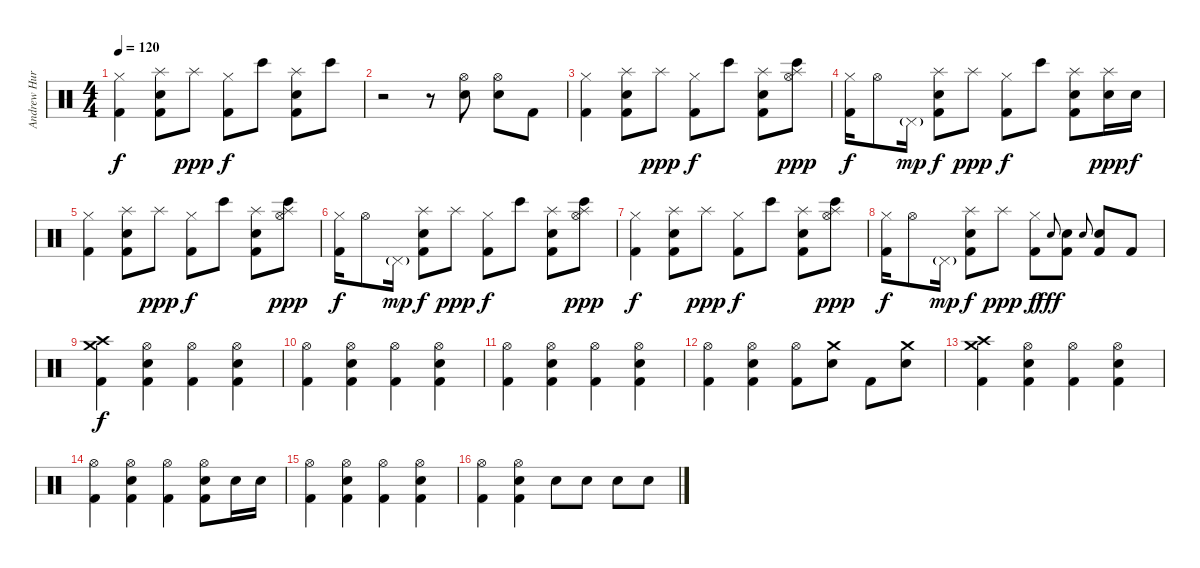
\track ("Andrew Hurley (Drums)" "Andrew Hur") {instrument percussion}
\staff {score}
\articulation defaults
\ts (4 4)
\tempo 120
\clef neutral
\ks c
("Hi-Hat (closed)" "Kick (hit) 2").4{dy f} ("Splash (hit)" "Snare (hit) 2" "Kick (hit) 2").8 "Splash (hit)".8{dy ppp} ("Hi-Hat (closed)" "Kick (hit) 2").8{dy f} "Bongo High (hit)".8 ("Splash (hit)" "Snare (hit) 2" "Kick (hit) 2").8 "Bongo High (hit)".8 |
r.2 r.8 ("Hi-Hat (open)" "Snare (hit) 2").8 ("Hi-Hat (open)" "Snare (hit) 2").8 "Kick (hit) 2".8 |
("Hi-Hat (closed)" "Kick (hit) 2").4 ("Splash (hit)" "Snare (hit) 2" "Kick (hit) 2").8 "Splash (hit)".8{dy ppp} ("Hi-Hat (closed)" "Kick (hit) 2").8{dy f} "Bongo High (hit)".8 ("Splash (hit)" "Snare (hit) 2" "Kick (hit) 2").8 ("Hi-Hat (open)" "Splash (hit)" "Bongo High (hit)").8{dy ppp} |
("Hi-Hat (closed)" "Kick (hit) 2").16{dy f} "Hi-Hat (open)".8 "Pedal Hi-Hat (hit)"{g}.16{dy mp} ("Splash (hit)" "Snare (hit) 2" "Kick (hit) 2").8{dy f} "Splash (hit)".8{dy ppp} ("Hi-Hat (closed)" "Kick (hit) 2").8{dy f} "Bongo High (hit)".8 ("Splash (hit)" "Snare (hit) 2" "Kick (hit) 2").8 ("Splash (hit)" "Snare (hit) 2").16{dy ppp} "Snare (hit) 2".16{dy f} |
("Hi-Hat (closed)" "Kick (hit) 2").4 ("Splash (hit)" "Snare (hit) 2" "Kick (hit) 2").8 "Splash (hit)".8{dy ppp} ("Hi-Hat (closed)" "Kick (hit) 2").8{dy f} "Bongo High (hit)".8 ("Splash (hit)" "Snare (hit) 2" "Kick (hit) 2").8 ("Hi-Hat (open)" "Splash (hit)" "Bongo High (hit)").8{dy ppp} |
("Hi-Hat (closed)" "Kick (hit) 2").16{dy f} "Hi-Hat (open)".8 "Pedal Hi-Hat (hit)"{g}.16{dy mp} ("Splash (hit)" "Snare (hit) 2" "Kick (hit) 2").8{dy f} "Splash (hit)".8{dy ppp} ("Hi-Hat (closed)" "Kick (hit) 2").8{dy f} "Bongo High (hit)".8 ("Splash (hit)" "Snare (hit) 2" "Kick (hit) 2").8 ("Hi-Hat (open)" "Splash (hit)" "Bongo High (hit)").8{dy ppp} |
("Hi-Hat (closed)" "Kick (hit) 2").4{dy f} ("Splash (hit)" "Snare (hit) 2" "Kick (hit) 2").8 "Splash (hit)".8{dy ppp} ("Hi-Hat (closed)" "Kick (hit) 2").8{dy f} "Bongo High (hit)".8 ("Splash (hit)" "Snare (hit) 2" "Kick (hit) 2").8 ("Hi-Hat (open)" "Splash (hit)" "Bongo High (hit)").8{dy ppp} |
("Hi-Hat (closed)" "Kick (hit) 2").16{dy f} "Hi-Hat (open)".8 "Pedal Hi-Hat (hit)"{g}.16{dy mp} ("Splash (hit)" "Snare (hit) 2" "Kick (hit) 2").8{dy f} "Splash (hit)".8{dy ppp} ("Hi-Hat (closed)" "Kick (hit) 2").8{dy f} "Snare (hit) 2".8{gr onbeat dy fff} ("Snare (hit) 2" "Kick (hit) 2").8 "Snare (hit) 2".8{gr onbeat} ("Snare (hit) 2" "Kick (hit) 2").8 "Kick (hit) 2".8 |
("Crash high (hit)" "Crash medium (hit)" "Kick (hit) 2").4{dy f} ("Hi-Hat (open)" "Snare (hit) 2" "Kick (hit) 2").4 ("Hi-Hat (open)" "Kick (hit) 2").4 ("Hi-Hat (open)" "Snare (hit) 2" "Kick (hit) 2").4 |
("Hi-Hat (open)" "Kick (hit) 2").4 ("Hi-Hat (open)" "Snare (hit) 2" "Kick (hit) 2").4 ("Hi-Hat (open)" "Kick (hit) 2").4 ("Hi-Hat (open)" "Snare (hit) 2" "Kick (hit) 2").4 |
("Hi-Hat (open)" "Kick (hit) 2").4 ("Hi-Hat (open)" "Snare (hit) 2" "Kick (hit) 2").4 ("Hi-Hat (open)" "Kick (hit) 2").4 ("Hi-Hat (open)" "Snare (hit) 2" "Kick (hit) 2").4 |
("Hi-Hat (open)" "Kick (hit) 2").4 ("Hi-Hat (open)" "Snare (hit) 2" "Kick (hit) 2").4 ("Hi-Hat (open)" "Kick (hit) 2").8 ("Crash medium (hit)" "Snare (hit) 2").8 "Kick (hit) 2".8 ("Crash medium (hit)" "Snare (hit) 2").8 |
("Crash high (hit)" "Crash medium (hit)" "Kick (hit) 2").4 ("Hi-Hat (open)" "Snare (hit) 2" "Kick (hit) 2").4 ("Hi-Hat (open)" "Kick (hit) 2").4 ("Hi-Hat (open)" "Snare (hit) 2" "Kick (hit) 2").4 |
("Hi-Hat (open)" "Kick (hit) 2").4 ("Hi-Hat (open)" "Snare (hit) 2" "Kick (hit) 2").4 ("Hi-Hat (open)" "Kick (hit) 2").4 ("Hi-Hat (open)" "Snare (hit) 2" "Kick (hit) 2").8 "Snare (hit) 2".16 "Snare (hit) 2".16 |
("Hi-Hat (open)" "Kick (hit) 2").4 ("Hi-Hat (open)" "Snare (hit) 2" "Kick (hit) 2").4 ("Hi-Hat (open)" "Kick (hit) 2").4 ("Hi-Hat (open)" "Snare (hit) 2" "Kick (hit) 2").4 |
("Hi-Hat (open)" "Kick (hit) 2").4 ("Hi-Hat (open)" "Snare (hit) 2" "Kick (hit) 2").4 "Snare (hit) 2".8 "Snare (hit) 2".8 "Snare (hit) 2".8 "Snare (hit) 2".8
